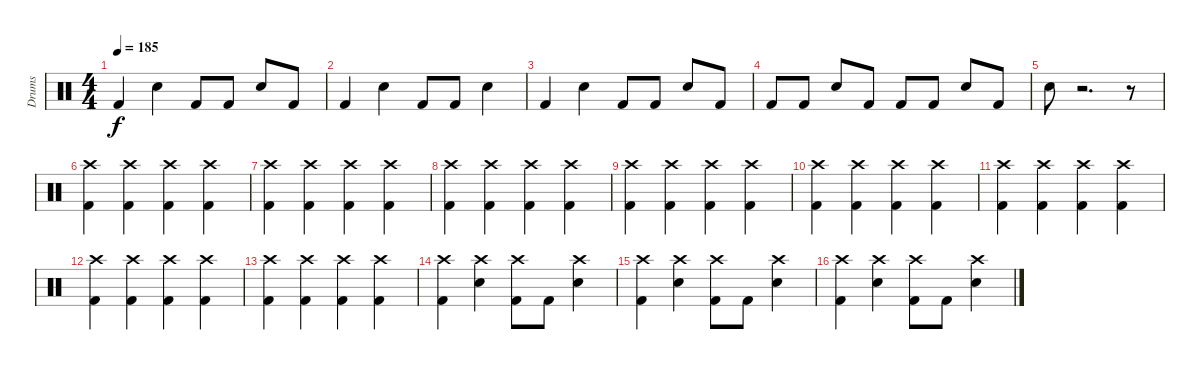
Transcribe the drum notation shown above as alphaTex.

\track ("Drums" "Drums") {instrument percussion}
\staff {score}
\articulation defaults
\ts (4 4)
\tempo 185
\clef neutral
\ks c "Kick (hit) 2".4{dy f} "Electric Snare (hit)".4 "Kick (hit) 2".8 "Kick (hit) 2".8 "Electric Snare (hit)".8 "Kick (hit) 2".8
|
"Kick (hit) 2".4 "Electric Snare (hit)".4 "Kick (hit) 2".8 "Kick (hit) 2".8 "Electric Snare (hit)".4 |
"Kick (hit) 2".4 "Electric Snare (hit)".4 "Kick (hit) 2".8 "Kick (hit) 2".8 "Electric Snare (hit)".8 "Kick (hit) 2".8 |
"Kick (hit) 2".8 "Kick (hit) 2".8 "Electric Snare (hit)".8 "Kick (hit) 2".8 "Kick (hit) 2".8 "Kick (hit) 2".8 "Electric Snare (hit)".8 "Kick (hit) 2".8 |
"Electric Snare (hit)".8 r.2{d} r.8 |
("Crash high (hit)" "Kick (hit) 2").4 ("Crash high (hit)" "Kick (hit) 2").4 ("Crash high (hit)" "Kick (hit) 2").4 ("Crash high (hit)" "Kick (hit) 2").4 |
("Crash high (hit)" "Kick (hit) 2").4 ("Crash high (hit)" "Kick (hit) 2").4 ("Crash high (hit)" "Kick (hit) 2").4 ("Crash high (hit)" "Kick (hit) 2").4 |
("Crash high (hit)" "Kick (hit) 2").4 ("Crash high (hit)" "Kick (hit) 2").4 ("Crash high (hit)" "Kick (hit) 2").4 ("Crash high (hit)" "Kick (hit) 2").4 |
("Crash high (hit)" "Kick (hit) 2").4 ("Crash high (hit)" "Kick (hit) 2").4 ("Crash high (hit)" "Kick (hit) 2").4 ("Crash high (hit)" "Kick (hit) 2").4 |
("Crash high (hit)" "Kick (hit) 2").4 ("Crash high (hit)" "Kick (hit) 2").4 ("Crash high (hit)" "Kick (hit) 2").4 ("Crash high (hit)" "Kick (hit) 2").4 |
("Crash high (hit)" "Kick (hit) 2").4 ("Crash high (hit)" "Kick (hit) 2").4 ("Crash high (hit)" "Kick (hit) 2").4 ("Crash high (hit)" "Kick (hit) 2").4 |
("Crash high (hit)" "Kick (hit) 2").4 ("Crash high (hit)" "Kick (hit) 2").4 ("Crash high (hit)" "Kick (hit) 2").4 ("Crash high (hit)" "Kick (hit) 2").4 |
("Crash high (hit)" "Kick (hit) 2").4 ("Crash high (hit)" "Kick (hit) 2").4 ("Crash high (hit)" "Kick (hit) 2").4 ("Crash high (hit)" "Kick (hit) 2").4 |
("Crash high (hit)" "Kick (hit) 2").4 ("Crash high (hit)" "Electric Snare (hit)").4 ("Crash high (hit)" "Kick (hit) 2").8 "Kick (hit) 2".8 ("Crash high (hit)" "Electric Snare (hit)").4 |
("Crash high (hit)" "Kick (hit) 2").4 ("Crash high (hit)" "Electric Snare (hit)").4 ("Crash high (hit)" "Kick (hit) 2").8 "Kick (hit) 2".8 ("Crash high (hit)" "Electric Snare (hit)").4 |
("Crash high (hit)" "Kick (hit) 2").4 ("Crash high (hit)" "Electric Snare (hit)").4 ("Crash high (hit)" "Kick (hit) 2").8 "Kick (hit) 2".8 ("Crash high (hit)" "Electric Snare (hit)").4
